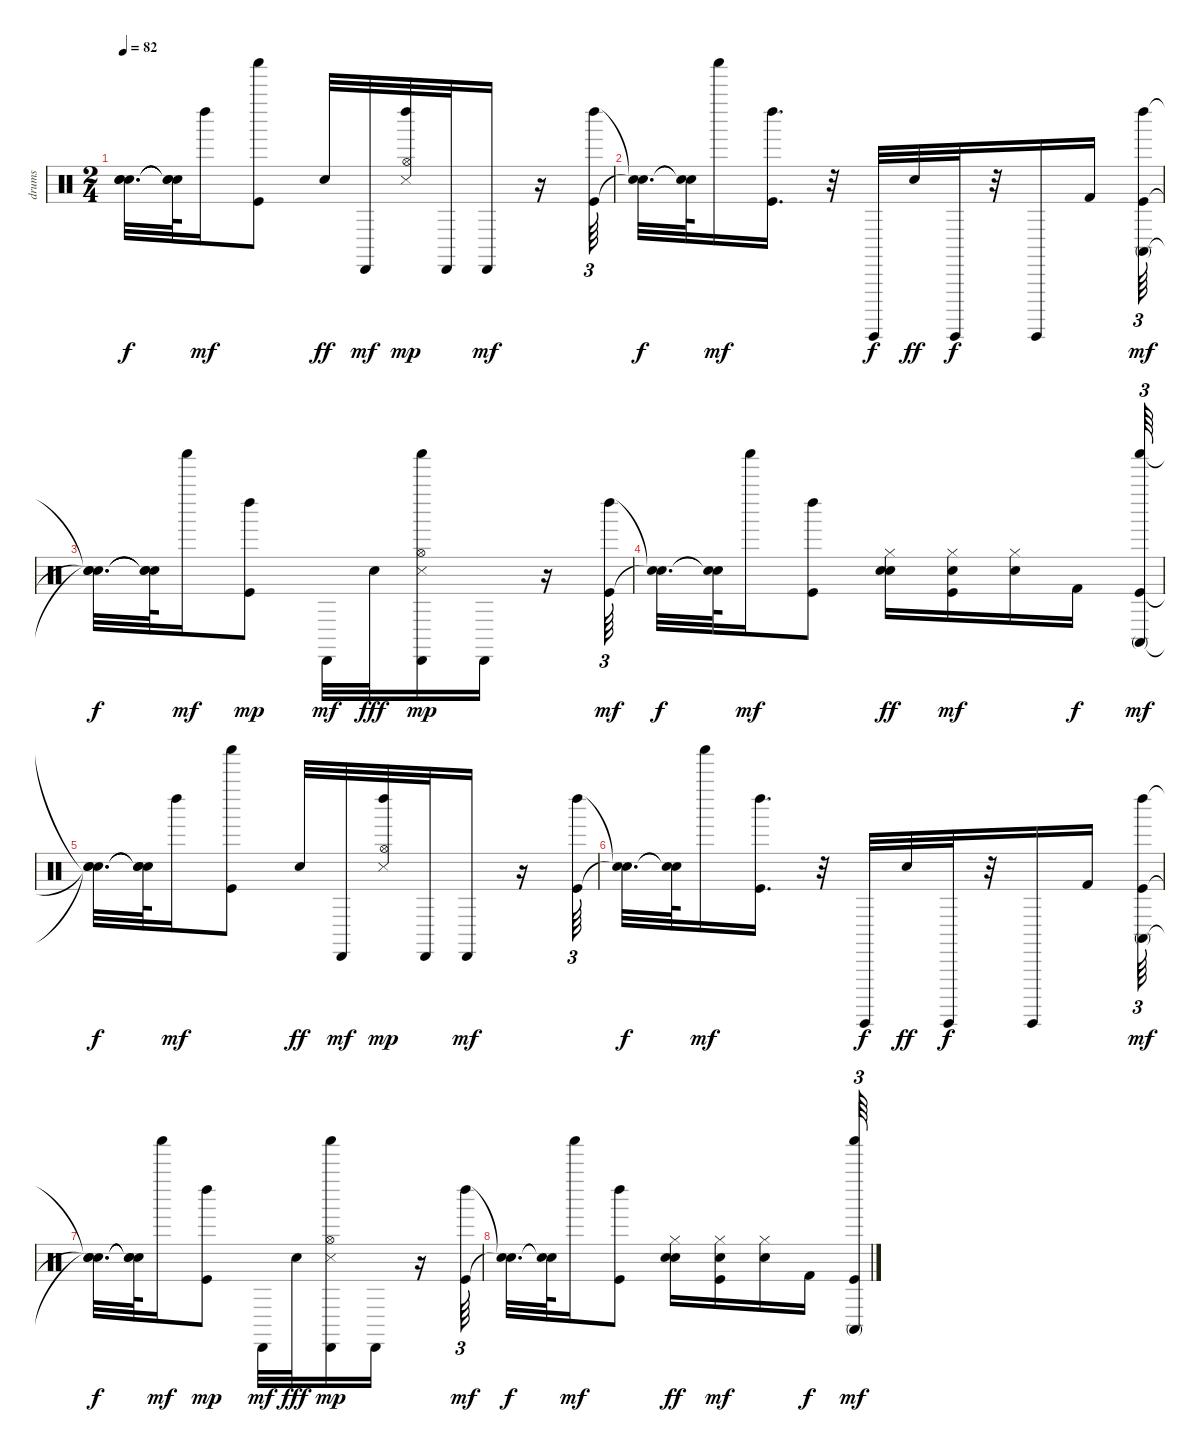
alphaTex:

\track ("drums" "drums") {instrument percussion}
\staff {score}
\articulation defaults
\ts (2 4)
\tempo 82
\clef neutral
\ks c
("Snare (hit)"{t} "Snare (hit)"{t} "Snare (hit)"{t}).32{d dy f} ("Snare (hit)"{t} "Snare (hit)"{t} "Snare (hit)"{t}).64 "Left Maraca (hit)".16{dy mf} ("Kick (hit)" "Shaker (hit)").8 "Electric Snare (hit)".32{dy ff} "Cabasa (hit)".32{dy mf} ("Hi-Hat (open)" "Left Maraca (hit)" "Snare (side stick) 3").32{dy mp} "Cabasa (hit)".32 "Cabasa (hit)".16{dy mf} r.16 ("Kick (hit)" "Left Maraca (hit)").64{tu (3 2)} |
("Snare (hit)"{t} "Snare (hit)"{t}).32{d dy f} ("Snare (hit)"{t} "Snare (hit)"{t}).64 "Shaker (hit)".16{dy mf} ("Kick (hit)" "Left Maraca (hit)").16{d} r.32 "Guiro (hit)".32{dy f} "Electric Snare (hit)".32{dy ff} "Guiro (hit)".32{dy f} r.32 "Guiro (hit)".16 "Kick (hit) 2".16 ("Kick (hit)" "Left Maraca (hit)" "Conga high (mute)").64{tu (3 2) dy mf} |
("Snare (hit)"{t} "Snare (hit)"{t} "Snare (hit)"{t}).32{d dy f} ("Snare (hit)"{t} "Snare (hit)"{t} "Snare (hit)"{t}).64 "Shaker (hit)".16{dy mf} ("Kick (hit)" "Left Maraca (hit)").8{dy mp} "Cabasa (hit)".32{dy mf} "Electric Snare (hit)".32{dy fff} ("Cabasa (hit)" "Snare (side stick) 3" "Shaker (hit)" "Hi-Hat (open)").16{dy mp} "Cabasa (hit)".16 r.16 ("Kick (hit)" "Left Maraca (hit)").64{tu (3 2) dy mf} |
("Snare (hit)"{t} "Snare (hit)"{t}).32{d dy f} ("Snare (hit)"{t} "Snare (hit)"{t}).64 "Shaker (hit)".16{dy mf} ("Kick (hit)" "Left Maraca (hit)").8 ("Hand Clap (hit)" "Hi-Hat (closed)" "Electric Snare (hit)").16{dy ff} ("Kick (hit)" "Hi-Hat (closed)" "Hand Clap (hit)").16{dy mf} ("Hi-Hat (closed)" "Hand Clap (hit)").16 "Kick (hit) 2".16{dy f} ("Kick (hit)" "Shaker (hit)" "Conga high (mute)").64{tu (3 2) dy mf} |
("Snare (hit)"{t} "Snare (hit)"{t} "Snare (hit)"{t}).32{d dy f} ("Snare (hit)"{t} "Snare (hit)"{t} "Snare (hit)"{t}).64 "Left Maraca (hit)".16{dy mf} ("Kick (hit)" "Shaker (hit)").8 "Electric Snare (hit)".32{dy ff} "Cabasa (hit)".32{dy mf} ("Hi-Hat (open)" "Left Maraca (hit)" "Snare (side stick) 3").32{dy mp} "Cabasa (hit)".32 "Cabasa (hit)".16{dy mf} r.16 ("Kick (hit)" "Left Maraca (hit)").64{tu (3 2)} |
("Snare (hit)"{t} "Snare (hit)"{t}).32{d dy f} ("Snare (hit)"{t} "Snare (hit)"{t}).64 "Shaker (hit)".16{dy mf} ("Kick (hit)" "Left Maraca (hit)").16{d} r.32 "Guiro (hit)".32{dy f} "Electric Snare (hit)".32{dy ff} "Guiro (hit)".32{dy f} r.32 "Guiro (hit)".16 "Kick (hit) 2".16 ("Kick (hit)" "Left Maraca (hit)" "Conga high (mute)").64{tu (3 2) dy mf} |
("Snare (hit)"{t} "Snare (hit)"{t} "Snare (hit)"{t}).32{d dy f} ("Snare (hit)"{t} "Snare (hit)"{t} "Snare (hit)"{t}).64 "Shaker (hit)".16{dy mf} ("Kick (hit)" "Left Maraca (hit)").8{dy mp} "Cabasa (hit)".32{dy mf} "Electric Snare (hit)".32{dy fff} ("Cabasa (hit)" "Snare (side stick) 3" "Shaker (hit)" "Hi-Hat (open)").16{dy mp} "Cabasa (hit)".16 r.16 ("Kick (hit)" "Left Maraca (hit)").64{tu (3 2) dy mf} |
("Snare (hit)"{t} "Snare (hit)"{t}).32{d dy f} ("Snare (hit)"{t} "Snare (hit)"{t}).64 "Shaker (hit)".16{dy mf} ("Kick (hit)" "Left Maraca (hit)").8 ("Hand Clap (hit)" "Hi-Hat (closed)" "Electric Snare (hit)").16{dy ff} ("Kick (hit)" "Hi-Hat (closed)" "Hand Clap (hit)").16{dy mf} ("Hi-Hat (closed)" "Hand Clap (hit)").16 "Kick (hit) 2".16{dy f} ("Kick (hit)" "Shaker (hit)" "Conga high (mute)").64{tu (3 2) dy mf}
